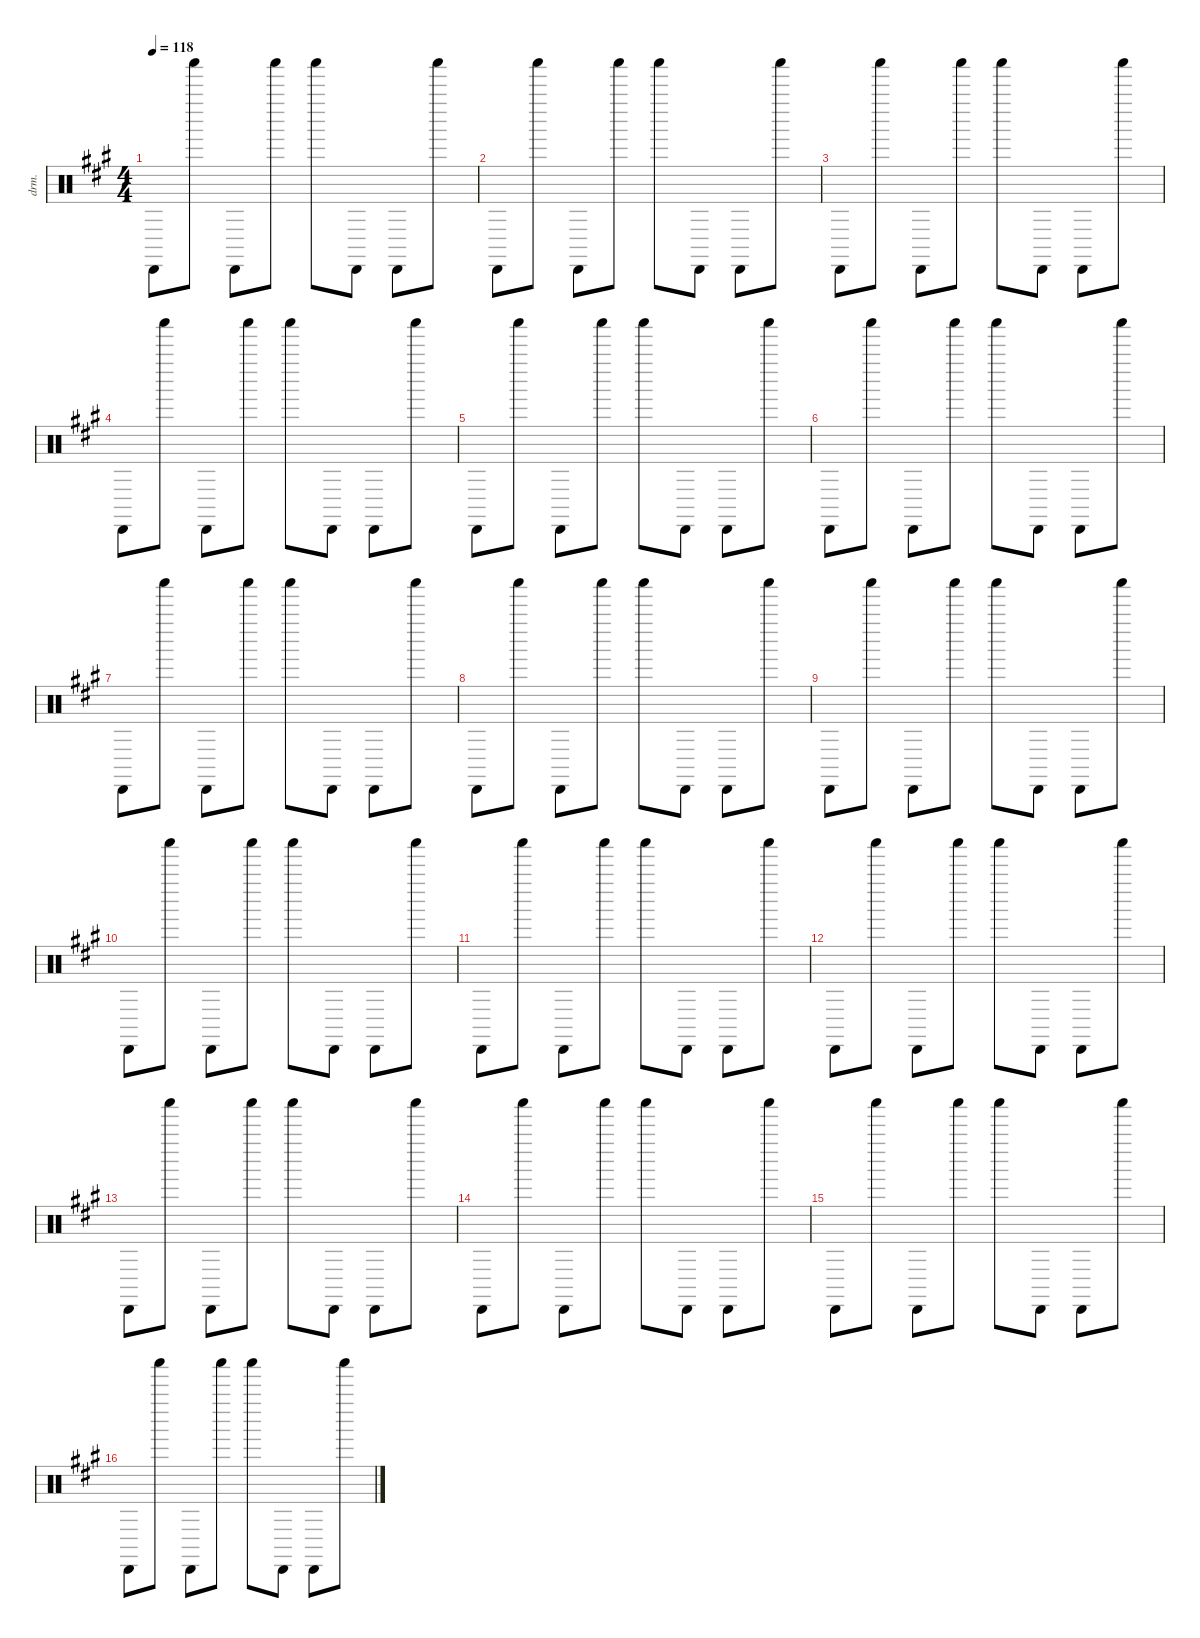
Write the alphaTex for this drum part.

\defaultSystemsLayout 4
\hideDynamics
\bracketExtendMode nobrackets
\otherSystemsTrackNameOrientation horizontal
\track ("shaker" "drm.") {instrument percussion}
\staff {score}
\articulation defaults
\ts (4 4)
\tempo 118
\clef neutral
\ks f#minor "Cabasa (hit)"{acc forcenatural}.8{dy f} "Shaker (hit)"{acc forcenatural}.8 "Cabasa (hit)"{acc forcenatural}.8{dy mp} "Shaker (hit)"{acc forcenatural}.8{dy f} "Shaker (hit)"{acc forcenatural}.8{dy p} "Cabasa (hit)"{acc forcenatural}.8{dy f} "Cabasa (hit)"{acc forcenatural}.8 "Shaker (hit)"{acc forcenatural}.8
|
"Cabasa (hit)"{acc forcenatural}.8 "Shaker (hit)"{acc forcenatural}.8 "Cabasa (hit)"{acc forcenatural}.8{dy mp} "Shaker (hit)"{acc forcenatural}.8{dy f} "Shaker (hit)"{acc forcenatural}.8{dy p} "Cabasa (hit)"{acc forcenatural}.8{dy f} "Cabasa (hit)"{acc forcenatural}.8 "Shaker (hit)"{acc forcenatural}.8 |
"Cabasa (hit)"{acc forcenatural}.8 "Shaker (hit)"{acc forcenatural}.8 "Cabasa (hit)"{acc forcenatural}.8{dy mp} "Shaker (hit)"{acc forcenatural}.8{dy f} "Shaker (hit)"{acc forcenatural}.8{dy p} "Cabasa (hit)"{acc forcenatural}.8{dy f} "Cabasa (hit)"{acc forcenatural}.8 "Shaker (hit)"{acc forcenatural}.8 |
"Cabasa (hit)"{acc forcenatural}.8 "Shaker (hit)"{acc forcenatural}.8 "Cabasa (hit)"{acc forcenatural}.8{dy mp} "Shaker (hit)"{acc forcenatural}.8{dy f} "Shaker (hit)"{acc forcenatural}.8{dy p} "Cabasa (hit)"{acc forcenatural}.8{dy f} "Cabasa (hit)"{acc forcenatural}.8 "Shaker (hit)"{acc forcenatural}.8 |
"Cabasa (hit)"{acc forcenatural}.8 "Shaker (hit)"{acc forcenatural}.8 "Cabasa (hit)"{acc forcenatural}.8{dy mp} "Shaker (hit)"{acc forcenatural}.8{dy f} "Shaker (hit)"{acc forcenatural}.8{dy p} "Cabasa (hit)"{acc forcenatural}.8{dy f} "Cabasa (hit)"{acc forcenatural}.8 "Shaker (hit)"{acc forcenatural}.8 |
"Cabasa (hit)"{acc forcenatural}.8 "Shaker (hit)"{acc forcenatural}.8 "Cabasa (hit)"{acc forcenatural}.8{dy mp} "Shaker (hit)"{acc forcenatural}.8{dy f} "Shaker (hit)"{acc forcenatural}.8{dy p} "Cabasa (hit)"{acc forcenatural}.8{dy f} "Cabasa (hit)"{acc forcenatural}.8 "Shaker (hit)"{acc forcenatural}.8 |
"Cabasa (hit)"{acc forcenatural}.8 "Shaker (hit)"{acc forcenatural}.8 "Cabasa (hit)"{acc forcenatural}.8{dy mp} "Shaker (hit)"{acc forcenatural}.8{dy f} "Shaker (hit)"{acc forcenatural}.8{dy p} "Cabasa (hit)"{acc forcenatural}.8{dy f} "Cabasa (hit)"{acc forcenatural}.8 "Shaker (hit)"{acc forcenatural}.8 |
"Cabasa (hit)"{acc forcenatural}.8 "Shaker (hit)"{acc forcenatural}.8 "Cabasa (hit)"{acc forcenatural}.8{dy mp} "Shaker (hit)"{acc forcenatural}.8{dy f} "Shaker (hit)"{acc forcenatural}.8{dy p} "Cabasa (hit)"{acc forcenatural}.8{dy f} "Cabasa (hit)"{acc forcenatural}.8 "Shaker (hit)"{acc forcenatural}.8 |
"Cabasa (hit)"{acc forcenatural}.8 "Shaker (hit)"{acc forcenatural}.8 "Cabasa (hit)"{acc forcenatural}.8{dy mp} "Shaker (hit)"{acc forcenatural}.8{dy f} "Shaker (hit)"{acc forcenatural}.8{dy p} "Cabasa (hit)"{acc forcenatural}.8{dy f} "Cabasa (hit)"{acc forcenatural}.8 "Shaker (hit)"{acc forcenatural}.8 |
"Cabasa (hit)"{acc forcenatural}.8 "Shaker (hit)"{acc forcenatural}.8 "Cabasa (hit)"{acc forcenatural}.8{dy mp} "Shaker (hit)"{acc forcenatural}.8{dy f} "Shaker (hit)"{acc forcenatural}.8{dy p} "Cabasa (hit)"{acc forcenatural}.8{dy f} "Cabasa (hit)"{acc forcenatural}.8 "Shaker (hit)"{acc forcenatural}.8 |
"Cabasa (hit)"{acc forcenatural}.8 "Shaker (hit)"{acc forcenatural}.8 "Cabasa (hit)"{acc forcenatural}.8{dy mp} "Shaker (hit)"{acc forcenatural}.8{dy f} "Shaker (hit)"{acc forcenatural}.8{dy p} "Cabasa (hit)"{acc forcenatural}.8{dy f} "Cabasa (hit)"{acc forcenatural}.8 "Shaker (hit)"{acc forcenatural}.8 |
"Cabasa (hit)"{acc forcenatural}.8 "Shaker (hit)"{acc forcenatural}.8 "Cabasa (hit)"{acc forcenatural}.8{dy mp} "Shaker (hit)"{acc forcenatural}.8{dy f} "Shaker (hit)"{acc forcenatural}.8{dy p} "Cabasa (hit)"{acc forcenatural}.8{dy f} "Cabasa (hit)"{acc forcenatural}.8 "Shaker (hit)"{acc forcenatural}.8 |
"Cabasa (hit)"{acc forcenatural}.8 "Shaker (hit)"{acc forcenatural}.8 "Cabasa (hit)"{acc forcenatural}.8{dy mp} "Shaker (hit)"{acc forcenatural}.8{dy f} "Shaker (hit)"{acc forcenatural}.8{dy p} "Cabasa (hit)"{acc forcenatural}.8{dy f} "Cabasa (hit)"{acc forcenatural}.8 "Shaker (hit)"{acc forcenatural}.8 |
"Cabasa (hit)"{acc forcenatural}.8 "Shaker (hit)"{acc forcenatural}.8 "Cabasa (hit)"{acc forcenatural}.8{dy mp} "Shaker (hit)"{acc forcenatural}.8{dy f} "Shaker (hit)"{acc forcenatural}.8{dy p} "Cabasa (hit)"{acc forcenatural}.8{dy f} "Cabasa (hit)"{acc forcenatural}.8 "Shaker (hit)"{acc forcenatural}.8 |
"Cabasa (hit)"{acc forcenatural}.8 "Shaker (hit)"{acc forcenatural}.8 "Cabasa (hit)"{acc forcenatural}.8{dy mp} "Shaker (hit)"{acc forcenatural}.8{dy f} "Shaker (hit)"{acc forcenatural}.8{dy p} "Cabasa (hit)"{acc forcenatural}.8{dy f} "Cabasa (hit)"{acc forcenatural}.8 "Shaker (hit)"{acc forcenatural}.8 |
"Cabasa (hit)"{acc forcenatural}.8 "Shaker (hit)"{acc forcenatural}.8 "Cabasa (hit)"{acc forcenatural}.8{dy mp} "Shaker (hit)"{acc forcenatural}.8{dy f} "Shaker (hit)"{acc forcenatural}.8{dy p} "Cabasa (hit)"{acc forcenatural}.8{dy f} "Cabasa (hit)"{acc forcenatural}.8 "Shaker (hit)"{acc forcenatural}.8
